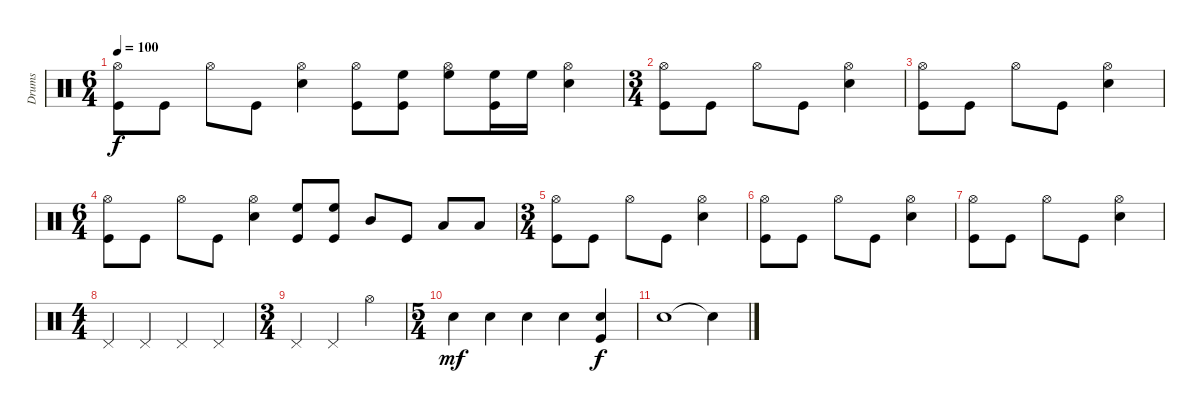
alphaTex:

\track ("Drums" "Drums") {instrument percussion}
\staff {score}
\articulation defaults
\ts (6 4)
\tempo 100
\clef neutral
\ks c
("Hi-Hat (open)" "Kick (hit)").8{dy f} "Kick (hit)".8 "Hi-Hat (open)".8 "Kick (hit)".8 ("Hi-Hat (open)" "Electric Snare (hit)").4 ("Hi-Hat (open)" "Kick (hit)").8 ("High Floor Tom (hit)" "Kick (hit)").8 ("Hi-Hat (open)" "High Floor Tom (hit)").8 ("High Floor Tom (hit)" "Kick (hit)").16 "High Floor Tom (hit)".16 ("Hi-Hat (open)" "Electric Snare (hit)").4 |
\ts (3 4)
("Hi-Hat (open)" "Kick (hit)").8 "Kick (hit)".8 "Hi-Hat (open)".8 "Kick (hit)".8 ("Hi-Hat (open)" "Electric Snare (hit)").4 |
("Hi-Hat (open)" "Kick (hit)").8 "Kick (hit)".8 "Hi-Hat (open)".8 "Kick (hit)".8 ("Hi-Hat (open)" "Electric Snare (hit)").4 |
\ts (6 4)
("Hi-Hat (open)" "Kick (hit)").8 "Kick (hit)".8 "Hi-Hat (open)".8 "Kick (hit)".8 ("Hi-Hat (open)" "Electric Snare (hit)").4 ("High Floor Tom (hit)" "Kick (hit)").8 ("High Floor Tom (hit)" "Kick (hit)").8 "Mid Tom (hit)".8 "Kick (hit)".8 "Low Tom (hit)".8 "Low Tom (hit)".8 |
\ts (3 4)
("Hi-Hat (open)" "Kick (hit)").8 "Kick (hit)".8 "Hi-Hat (open)".8 "Kick (hit)".8 ("Hi-Hat (open)" "Electric Snare (hit)").4 |
("Hi-Hat (open)" "Kick (hit)").8 "Kick (hit)".8 "Hi-Hat (open)".8 "Kick (hit)".8 ("Hi-Hat (open)" "Electric Snare (hit)").4 |
("Hi-Hat (open)" "Kick (hit)").8 "Kick (hit)".8 "Hi-Hat (open)".8 "Kick (hit)".8 ("Hi-Hat (open)" "Electric Snare (hit)").4 |
\ts (4 4)
"Pedal Hi-Hat (hit)".4 "Pedal Hi-Hat (hit)".4 "Pedal Hi-Hat (hit)".4 "Pedal Hi-Hat (hit)".4 |
\ts (3 4)
"Pedal Hi-Hat (hit)".4 "Pedal Hi-Hat (hit)".4 "Hi-Hat (open)".4 |
\ts (5 4)
"Electric Snare (hit)".4{dy mf} "Electric Snare (hit)".4 "Electric Snare (hit)".4 "Electric Snare (hit)".4 ("Electric Snare (hit)" "Kick (hit)").4{dy f} |
"Electric Snare (hit)".1 "Snare (hit)"{t}.4
